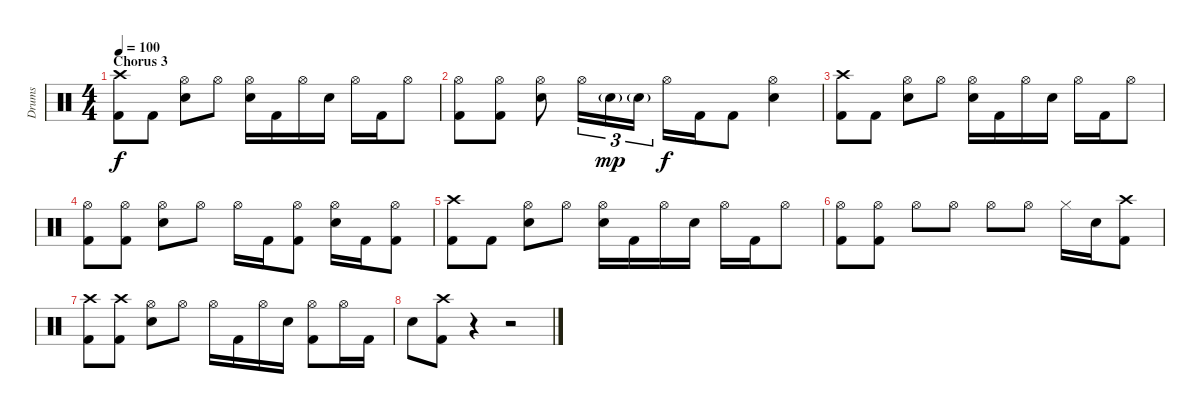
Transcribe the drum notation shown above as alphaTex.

\track ("Drums" "Drums") {instrument percussion}
\staff {score}
\articulation defaults
\ts (4 4)
\section ("" "Chorus 3")
\tempo 100
\clef neutral
\ks c
("Crash high (hit)" "Kick (hit) 2").8{dy f} "Kick (hit) 2".8 ("Hi-Hat (open)" "Electric Snare (hit)").8 "Hi-Hat (open)".8 ("Hi-Hat (open)" "Electric Snare (hit)").16 "Kick (hit) 2".16 "Hi-Hat (open)".16 "Electric Snare (hit)".16 "Hi-Hat (open)".16 "Kick (hit) 2".16 "Hi-Hat (open)".8 |
("Hi-Hat (open)" "Kick (hit) 2").8 ("Hi-Hat (open)" "Kick (hit) 2").8 ("Hi-Hat (open)" "Electric Snare (hit)").8 "Hi-Hat (open)".16{tu (3 2)} "Electric Snare (hit)"{g}.16{tu (3 2) dy mp} "Electric Snare (hit)"{g}.16{tu (3 2)} "Hi-Hat (open)".16{dy f} "Kick (hit) 2".16 "Kick (hit) 2".8 ("Hi-Hat (open)" "Electric Snare (hit)").4 |
("Crash high (hit)" "Kick (hit) 2").8 "Kick (hit) 2".8 ("Hi-Hat (open)" "Electric Snare (hit)").8 "Hi-Hat (open)".8 ("Hi-Hat (open)" "Electric Snare (hit)").16 "Kick (hit) 2".16 "Hi-Hat (open)".16 "Electric Snare (hit)".16 "Hi-Hat (open)".16 "Kick (hit) 2".16 "Hi-Hat (open)".8 |
("Hi-Hat (open)" "Kick (hit) 2").8 ("Hi-Hat (open)" "Kick (hit) 2").8 ("Hi-Hat (open)" "Electric Snare (hit)").8 "Hi-Hat (open)".8 "Hi-Hat (open)".16 "Kick (hit) 2".16 ("Hi-Hat (open)" "Kick (hit) 2").8 ("Hi-Hat (open)" "Electric Snare (hit)").16 "Kick (hit) 2".16 ("Hi-Hat (open)" "Kick (hit) 2").8 |
("Crash high (hit)" "Kick (hit) 2").8 "Kick (hit) 2".8 ("Hi-Hat (open)" "Electric Snare (hit)").8 "Hi-Hat (open)".8 ("Hi-Hat (open)" "Electric Snare (hit)").16 "Kick (hit) 2".16 "Hi-Hat (open)".16 "Electric Snare (hit)".16 "Hi-Hat (open)".16 "Kick (hit) 2".16 "Hi-Hat (open)".8 |
("Hi-Hat (open)" "Kick (hit) 2").8 ("Hi-Hat (open)" "Kick (hit) 2").8 "Hi-Hat (open)".8 "Hi-Hat (open)".8 "Hi-Hat (open)".8 "Hi-Hat (open)".8 "Hi-Hat (closed)".16 "Electric Snare (hit)".16 ("Crash high (hit)" "Kick (hit) 2").8 |
("Crash high (hit)" "Kick (hit) 2").8 ("Crash high (hit)" "Kick (hit) 2").8 ("Hi-Hat (open)" "Electric Snare (hit)").8 "Hi-Hat (open)".8 "Hi-Hat (open)".16 "Kick (hit) 2".16 "Hi-Hat (open)".16 "Electric Snare (hit)".16 ("Hi-Hat (open)" "Kick (hit) 2").8 "Hi-Hat (open)".16 "Kick (hit) 2".16 |
"Electric Snare (hit)".8 ("Crash high (hit)" "Kick (hit) 2").8 r.4 r.2
